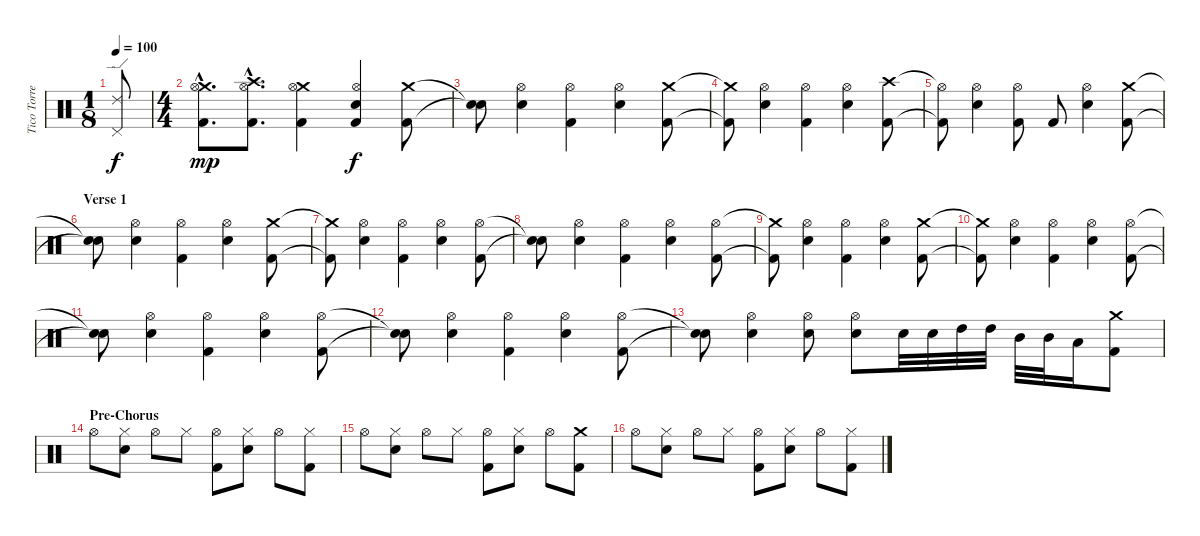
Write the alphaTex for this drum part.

\track ("Tico Torres" "Tico Torre") {instrument percussion}
\staff {score}
\articulation defaults
\ts (1 8)
\tempo 100
\clef neutral
\ks c
("Ride (edge) 2" "Pedal Hi-Hat (hit)").8{dy f} |
\ts (4 4)
("Crash medium (hit)"{hac} "Kick (hit) 2"{hac} "Hi-Hat (open)"{hac}).8{d dy mp} ("Crash high (hit)"{hac} "Kick (hit) 2"{hac} "Hi-Hat (open)"{hac}).8{d} ("Crash medium (hit)" "Kick (hit) 2" "Hi-Hat (open)").4 ("Hi-Hat (open)" "Electric Snare (hit)" "Kick (hit) 2").4{dy f} ("Crash medium (hit)" "Kick (hit) 2").8 |
("Snare (hit)"{t} "Snare (hit)"{t}).8 ("Hi-Hat (open)" "Electric Snare (hit)").4 ("Hi-Hat (open)" "Kick (hit) 2").4 ("Hi-Hat (open)" "Electric Snare (hit)").4 ("Crash medium (hit)" "Kick (hit) 2").8 |
("Crash medium (hit)"{t} "Kick (hit) 2"{t}).8 ("Hi-Hat (open)" "Electric Snare (hit)").4 ("Hi-Hat (open)" "Kick (hit) 2").4 ("Hi-Hat (open)" "Electric Snare (hit)").4 ("Crash high (hit)" "Kick (hit) 2").8 |
("Hi-Hat (open)"{t} "Kick (hit) 2"{t}).8 ("Hi-Hat (open)" "Electric Snare (hit)").4 ("Hi-Hat (open)" "Kick (hit) 2").8 "Kick (hit) 2".8 ("Hi-Hat (open)" "Electric Snare (hit)").4 ("Crash medium (hit)" "Kick (hit) 2").8 |
\section ("" "Verse 1")
("Snare (hit)"{t} "Snare (hit)"{t}).8 ("Hi-Hat (open)" "Electric Snare (hit)").4 ("Hi-Hat (open)" "Kick (hit) 2").4 ("Hi-Hat (open)" "Electric Snare (hit)").4 ("Crash medium (hit)" "Kick (hit) 2").8 |
("Crash medium (hit)"{t} "Kick (hit) 2"{t}).8 ("Hi-Hat (open)" "Electric Snare (hit)").4 ("Hi-Hat (open)" "Kick (hit) 2").4 ("Hi-Hat (open)" "Electric Snare (hit)").4 ("Hi-Hat (open)" "Kick (hit) 2").8 |
("Snare (hit)"{t} "Snare (hit)"{t}).8 ("Hi-Hat (open)" "Electric Snare (hit)").4 ("Hi-Hat (open)" "Kick (hit) 2").4 ("Hi-Hat (open)" "Electric Snare (hit)").4 ("Hi-Hat (open)" "Kick (hit) 2").8 |
("Crash medium (hit)"{t} "Kick (hit) 2"{t}).8 ("Hi-Hat (open)" "Electric Snare (hit)").4 ("Hi-Hat (open)" "Kick (hit) 2").4 ("Hi-Hat (open)" "Electric Snare (hit)").4 ("Crash medium (hit)" "Kick (hit) 2").8 |
("Crash medium (hit)"{t} "Kick (hit) 2"{t}).8 ("Hi-Hat (open)" "Electric Snare (hit)").4 ("Hi-Hat (open)" "Kick (hit) 2").4 ("Hi-Hat (open)" "Electric Snare (hit)").4 ("Hi-Hat (open)" "Kick (hit) 2").8 |
("Snare (hit)"{t} "Snare (hit)"{t}).8 ("Hi-Hat (open)" "Electric Snare (hit)").4 ("Hi-Hat (open)" "Kick (hit) 2").4 ("Hi-Hat (open)" "Electric Snare (hit)").4 ("Hi-Hat (open)" "Kick (hit) 2").8 |
("Snare (hit)"{t} "Snare (hit)"{t}).8 ("Hi-Hat (open)" "Electric Snare (hit)").4 ("Hi-Hat (open)" "Kick (hit) 2").4 ("Hi-Hat (open)" "Electric Snare (hit)").4 ("Hi-Hat (open)" "Kick (hit) 2").8 |
("Snare (hit)"{t} "Snare (hit)"{t}).8 ("Hi-Hat (open)" "Electric Snare (hit)").4 ("Hi-Hat (open)" "Electric Snare (hit)").8 ("Hi-Hat (open)" "Electric Snare (hit)").8 "Electric Snare (hit)".32 "Electric Snare (hit)".32 "High Tom (hit)".32 "High Tom (hit)".32 "Mid Tom (hit)".32 "Mid Tom (hit)".32 "Low Tom (hit)".16 ("Crash medium (hit)" "Kick (hit) 2").8 |
\section ("" "Pre-Chorus")
"Hi-Hat (open)".8 ("Hi-Hat (closed)" "Electric Snare (hit)").8 "Hi-Hat (open)".8 "Hi-Hat (closed)".8 ("Hi-Hat (open)" "Kick (hit) 2").8 ("Hi-Hat (closed)" "Electric Snare (hit)").8 "Hi-Hat (open)".8 ("Hi-Hat (closed)" "Kick (hit) 2").8 |
"Hi-Hat (open)".8 ("Hi-Hat (closed)" "Electric Snare (hit)").8 "Hi-Hat (open)".8 "Hi-Hat (closed)".8 ("Hi-Hat (open)" "Kick (hit) 2").8 ("Hi-Hat (closed)" "Electric Snare (hit)").8 "Hi-Hat (open)".8 ("Crash medium (hit)" "Kick (hit) 2").8 |
"Hi-Hat (open)".8 ("Hi-Hat (closed)" "Electric Snare (hit)").8 "Hi-Hat (open)".8 "Hi-Hat (closed)".8 ("Hi-Hat (open)" "Kick (hit) 2").8 ("Hi-Hat (closed)" "Electric Snare (hit)").8 "Hi-Hat (open)".8 ("Hi-Hat (closed)" "Kick (hit) 2").8
